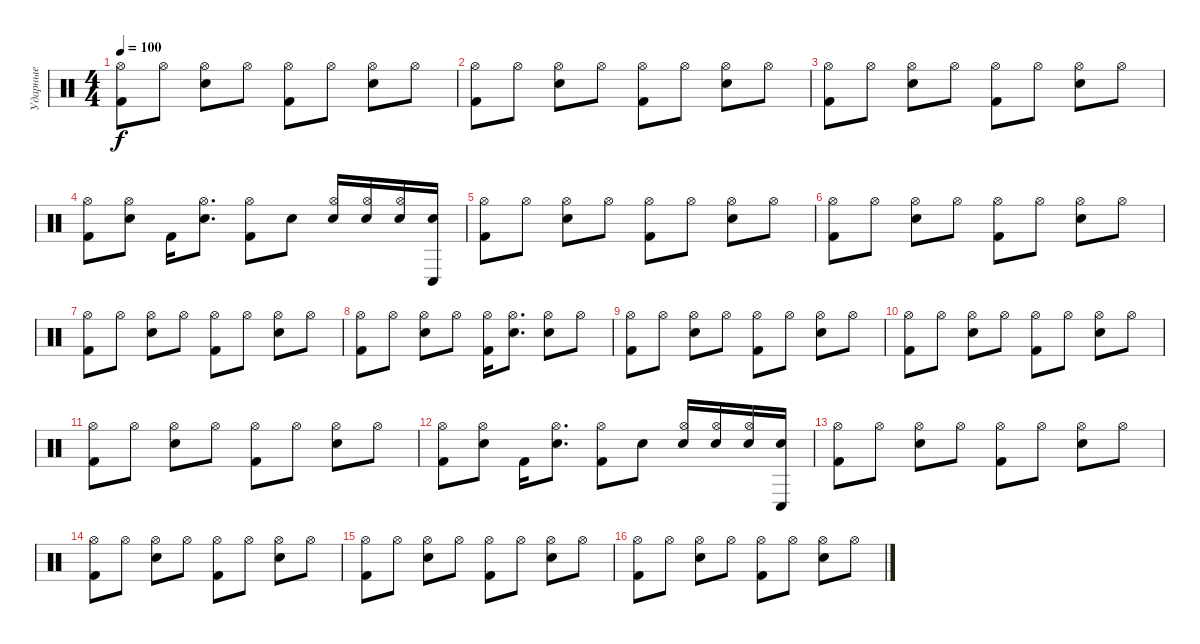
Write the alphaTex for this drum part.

\track ("Ударные" "Ударные") {instrument percussion}
\staff {score}
\articulation defaults
\ts (4 4)
\tempo 100
\clef neutral
\ks c
("Hi-Hat (open)" "Kick (hit) 2").8{dy f} "Hi-Hat (open)".8 ("Hi-Hat (open)" "Electric Snare (hit)").8 "Hi-Hat (open)".8 ("Hi-Hat (open)" "Kick (hit) 2").8 "Hi-Hat (open)".8 ("Hi-Hat (open)" "Electric Snare (hit)").8 "Hi-Hat (open)".8 |
("Hi-Hat (open)" "Kick (hit) 2").8 "Hi-Hat (open)".8 ("Hi-Hat (open)" "Electric Snare (hit)").8 "Hi-Hat (open)".8 ("Hi-Hat (open)" "Kick (hit) 2").8 "Hi-Hat (open)".8 ("Hi-Hat (open)" "Electric Snare (hit)").8 "Hi-Hat (open)".8 |
("Hi-Hat (open)" "Kick (hit) 2").8 "Hi-Hat (open)".8 ("Hi-Hat (open)" "Electric Snare (hit)").8 "Hi-Hat (open)".8 ("Hi-Hat (open)" "Kick (hit) 2").8 "Hi-Hat (open)".8 ("Hi-Hat (open)" "Electric Snare (hit)").8 "Hi-Hat (open)".8 |
("Hi-Hat (open)" "Kick (hit) 2").8 ("Hi-Hat (open)" "Electric Snare (hit)").8 "Kick (hit) 2".16 ("Hi-Hat (open)" "Electric Snare (hit)").8{d} ("Hi-Hat (open)" "Kick (hit) 2").8 "Electric Snare (hit)".8 ("Hi-Hat (open)" "Electric Snare (hit)").16 ("Hi-Hat (open)" "Electric Snare (hit)").16 ("Hi-Hat (open)" "Electric Snare (hit)").16 ("Conga low (hit)" "Electric Snare (hit)").16 |
("Hi-Hat (open)" "Kick (hit) 2").8 "Hi-Hat (open)".8 ("Hi-Hat (open)" "Electric Snare (hit)").8 "Hi-Hat (open)".8 ("Hi-Hat (open)" "Kick (hit) 2").8 "Hi-Hat (open)".8 ("Hi-Hat (open)" "Electric Snare (hit)").8 "Hi-Hat (open)".8 |
("Hi-Hat (open)" "Kick (hit) 2").8 "Hi-Hat (open)".8 ("Hi-Hat (open)" "Electric Snare (hit)").8 "Hi-Hat (open)".8 ("Hi-Hat (open)" "Kick (hit) 2").8 "Hi-Hat (open)".8 ("Hi-Hat (open)" "Electric Snare (hit)").8 "Hi-Hat (open)".8 |
("Hi-Hat (open)" "Kick (hit) 2").8 "Hi-Hat (open)".8 ("Hi-Hat (open)" "Electric Snare (hit)").8 "Hi-Hat (open)".8 ("Hi-Hat (open)" "Kick (hit) 2").8 "Hi-Hat (open)".8 ("Hi-Hat (open)" "Electric Snare (hit)").8 "Hi-Hat (open)".8 |
("Hi-Hat (open)" "Kick (hit) 2").8 "Hi-Hat (open)".8 ("Hi-Hat (open)" "Electric Snare (hit)").8 "Hi-Hat (open)".8 ("Hi-Hat (open)" "Kick (hit) 2").16 ("Hi-Hat (open)" "Electric Snare (hit)").8{d} ("Hi-Hat (open)" "Electric Snare (hit)").8 "Hi-Hat (open)".8 |
("Hi-Hat (open)" "Kick (hit) 2").8 "Hi-Hat (open)".8 ("Hi-Hat (open)" "Electric Snare (hit)").8 "Hi-Hat (open)".8 ("Hi-Hat (open)" "Kick (hit) 2").8 "Hi-Hat (open)".8 ("Hi-Hat (open)" "Electric Snare (hit)").8 "Hi-Hat (open)".8 |
("Hi-Hat (open)" "Kick (hit) 2").8 "Hi-Hat (open)".8 ("Hi-Hat (open)" "Electric Snare (hit)").8 "Hi-Hat (open)".8 ("Hi-Hat (open)" "Kick (hit) 2").8 "Hi-Hat (open)".8 ("Hi-Hat (open)" "Electric Snare (hit)").8 "Hi-Hat (open)".8 |
("Hi-Hat (open)" "Kick (hit) 2").8 "Hi-Hat (open)".8 ("Hi-Hat (open)" "Electric Snare (hit)").8 "Hi-Hat (open)".8 ("Hi-Hat (open)" "Kick (hit) 2").8 "Hi-Hat (open)".8 ("Hi-Hat (open)" "Electric Snare (hit)").8 "Hi-Hat (open)".8 |
("Hi-Hat (open)" "Kick (hit) 2").8 ("Hi-Hat (open)" "Electric Snare (hit)").8 "Kick (hit) 2".16 ("Hi-Hat (open)" "Electric Snare (hit)").8{d} ("Hi-Hat (open)" "Kick (hit) 2").8 "Electric Snare (hit)".8 ("Hi-Hat (open)" "Electric Snare (hit)").16 ("Hi-Hat (open)" "Electric Snare (hit)").16 ("Hi-Hat (open)" "Electric Snare (hit)").16 ("Conga low (hit)" "Electric Snare (hit)").16 |
("Hi-Hat (open)" "Kick (hit) 2").8 "Hi-Hat (open)".8 ("Hi-Hat (open)" "Electric Snare (hit)").8 "Hi-Hat (open)".8 ("Hi-Hat (open)" "Kick (hit) 2").8 "Hi-Hat (open)".8 ("Hi-Hat (open)" "Electric Snare (hit)").8 "Hi-Hat (open)".8 |
("Hi-Hat (open)" "Kick (hit) 2").8 "Hi-Hat (open)".8 ("Hi-Hat (open)" "Electric Snare (hit)").8 "Hi-Hat (open)".8 ("Hi-Hat (open)" "Kick (hit) 2").8 "Hi-Hat (open)".8 ("Hi-Hat (open)" "Electric Snare (hit)").8 "Hi-Hat (open)".8 |
("Hi-Hat (open)" "Kick (hit) 2").8 "Hi-Hat (open)".8 ("Hi-Hat (open)" "Electric Snare (hit)").8 "Hi-Hat (open)".8 ("Hi-Hat (open)" "Kick (hit) 2").8 "Hi-Hat (open)".8 ("Hi-Hat (open)" "Electric Snare (hit)").8 "Hi-Hat (open)".8 |
("Hi-Hat (open)" "Kick (hit) 2").8 "Hi-Hat (open)".8 ("Hi-Hat (open)" "Electric Snare (hit)").8 "Hi-Hat (open)".8 ("Hi-Hat (open)" "Kick (hit) 2").8 "Hi-Hat (open)".8 ("Hi-Hat (open)" "Electric Snare (hit)").8 "Hi-Hat (open)".8
